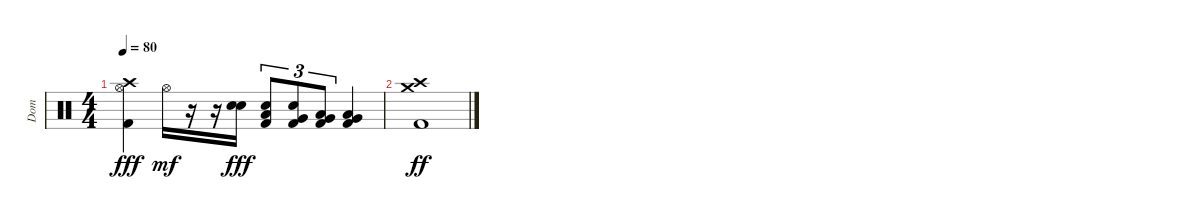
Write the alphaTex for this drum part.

\track ("Dom" "Dom") {instrument percussion}
\staff {score}
\articulation defaults
\ts (4 4)
\tempo 80
\clef neutral
\ks c
("Hi-Hat (open)" "Crash high (hit)" "Kick (hit) 2").4{dy fff} "Hi-Hat (open)".16{dy mf} r.16 r.16 ("Electric Snare (hit)" "Electric Snare (hit)").16{bd 60 dy fff} ("Electric Snare (hit)" "Low Tom (hit)" "Kick (hit) 2").8{tu (3 2) bd 60} ("Electric Snare (hit)" "Very Low Tom (hit)" "Kick (hit) 2").8{tu (3 2)} ("Low Tom (hit)" "Very Low Tom (hit)" "Kick (hit) 2").8{tu (3 2) bd 60} ("Very Low Tom (hit)" "Low Floor Tom (hit)" "Kick (hit) 2").4 |
("Crash high (hit)" "Crash medium (hit)" "Kick (hit) 2").1{dy ff}
